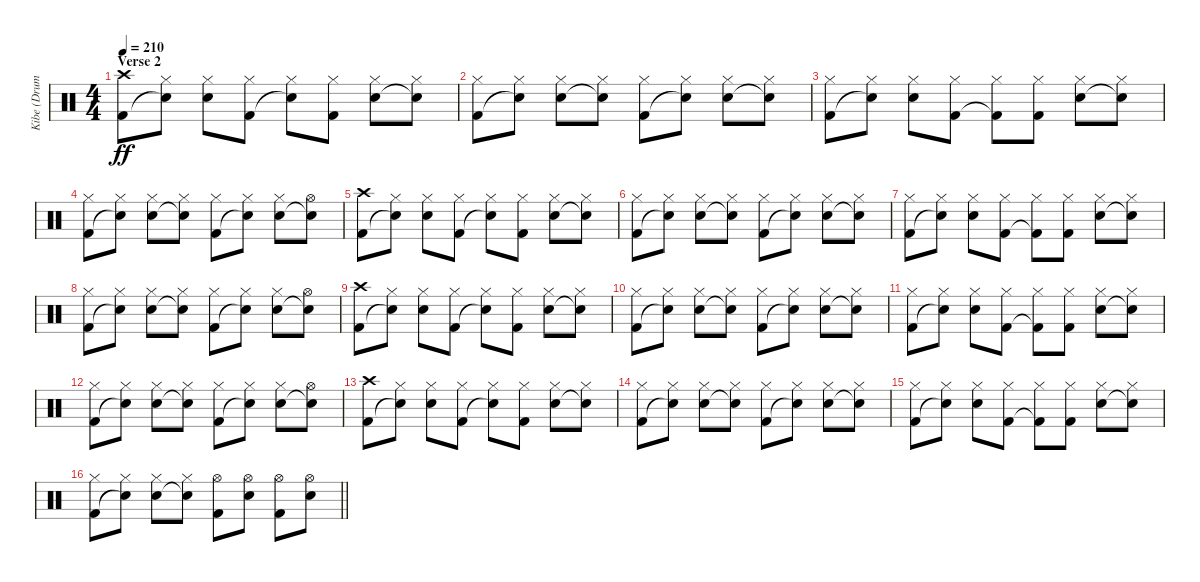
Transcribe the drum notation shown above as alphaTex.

\track ("Kibe (Drums)" "Kibe (Drum") {instrument percussion}
\staff {score}
\articulation defaults
\ts (4 4)
\section ("" "Verse 2")
\tempo 210
\clef neutral
\ks c
("Crash high (hit)" "Kick (hit) 2").8{dy ff} ("Hi-Hat (closed)" "Snare (hit)"{t}).8 ("Hi-Hat (closed)" "Snare (hit) 2").8 ("Hi-Hat (closed)" "Kick (hit) 2").8 ("Hi-Hat (closed)" "Snare (hit)"{t}).8 ("Hi-Hat (closed)" "Kick (hit) 2").8 ("Hi-Hat (closed)" "Snare (hit) 2").8 ("Hi-Hat (closed)" "Snare (hit)"{t}).8 |
("Hi-Hat (closed)" "Kick (hit) 2").8 ("Hi-Hat (closed)" "Snare (hit)"{t}).8 ("Hi-Hat (closed)" "Snare (hit) 2").8 ("Hi-Hat (closed)" "Snare (hit)"{t}).8 ("Hi-Hat (closed)" "Kick (hit) 2").8 ("Hi-Hat (closed)" "Snare (hit)"{t}).8 ("Hi-Hat (closed)" "Snare (hit) 2").8 ("Hi-Hat (closed)" "Snare (hit)"{t}).8 |
("Hi-Hat (closed)" "Kick (hit) 2").8 ("Hi-Hat (closed)" "Snare (hit)"{t}).8 ("Hi-Hat (closed)" "Snare (hit) 2").8 ("Hi-Hat (closed)" "Kick (hit) 2").8 ("Hi-Hat (closed)" "Kick (hit) 2"{t}).8 ("Hi-Hat (closed)" "Kick (hit) 2").8 ("Hi-Hat (closed)" "Snare (hit) 2").8 ("Hi-Hat (closed)" "Snare (hit)"{t}).8 |
("Hi-Hat (closed)" "Kick (hit) 2").8 ("Hi-Hat (closed)" "Snare (hit)"{t}).8 ("Hi-Hat (closed)" "Snare (hit) 2").8 ("Hi-Hat (closed)" "Snare (hit)"{t}).8 ("Hi-Hat (closed)" "Kick (hit) 2").8 ("Hi-Hat (closed)" "Snare (hit)"{t}).8 ("Hi-Hat (closed)" "Snare (hit) 2").8 ("Hi-Hat (open)" "Snare (hit)"{t}).8 |
("Crash high (hit)" "Kick (hit) 2").8 ("Hi-Hat (closed)" "Snare (hit)"{t}).8 ("Hi-Hat (closed)" "Snare (hit) 2").8 ("Hi-Hat (closed)" "Kick (hit) 2").8 ("Hi-Hat (closed)" "Snare (hit)"{t}).8 ("Hi-Hat (closed)" "Kick (hit) 2").8 ("Hi-Hat (closed)" "Snare (hit) 2").8 ("Hi-Hat (closed)" "Snare (hit)"{t}).8 |
("Hi-Hat (closed)" "Kick (hit) 2").8 ("Hi-Hat (closed)" "Snare (hit)"{t}).8 ("Hi-Hat (closed)" "Snare (hit) 2").8 ("Hi-Hat (closed)" "Snare (hit)"{t}).8 ("Hi-Hat (closed)" "Kick (hit) 2").8 ("Hi-Hat (closed)" "Snare (hit)"{t}).8 ("Hi-Hat (closed)" "Snare (hit) 2").8 ("Hi-Hat (closed)" "Snare (hit)"{t}).8 |
("Hi-Hat (closed)" "Kick (hit) 2").8 ("Hi-Hat (closed)" "Snare (hit)"{t}).8 ("Hi-Hat (closed)" "Snare (hit) 2").8 ("Hi-Hat (closed)" "Kick (hit) 2").8 ("Hi-Hat (closed)" "Kick (hit) 2"{t}).8 ("Hi-Hat (closed)" "Kick (hit) 2").8 ("Hi-Hat (closed)" "Snare (hit) 2").8 ("Hi-Hat (closed)" "Snare (hit)"{t}).8 |
("Hi-Hat (closed)" "Kick (hit) 2").8 ("Hi-Hat (closed)" "Snare (hit)"{t}).8 ("Hi-Hat (closed)" "Snare (hit) 2").8 ("Hi-Hat (closed)" "Snare (hit)"{t}).8 ("Hi-Hat (closed)" "Kick (hit) 2").8 ("Hi-Hat (closed)" "Snare (hit)"{t}).8 ("Hi-Hat (closed)" "Snare (hit) 2").8 ("Hi-Hat (open)" "Snare (hit)"{t}).8 |
("Crash high (hit)" "Kick (hit) 2").8 ("Hi-Hat (closed)" "Snare (hit)"{t}).8 ("Hi-Hat (closed)" "Snare (hit) 2").8 ("Hi-Hat (closed)" "Kick (hit) 2").8 ("Hi-Hat (closed)" "Snare (hit)"{t}).8 ("Hi-Hat (closed)" "Kick (hit) 2").8 ("Hi-Hat (closed)" "Snare (hit) 2").8 ("Hi-Hat (closed)" "Snare (hit)"{t}).8 |
("Hi-Hat (closed)" "Kick (hit) 2").8 ("Hi-Hat (closed)" "Snare (hit)"{t}).8 ("Hi-Hat (closed)" "Snare (hit) 2").8 ("Hi-Hat (closed)" "Snare (hit)"{t}).8 ("Hi-Hat (closed)" "Kick (hit) 2").8 ("Hi-Hat (closed)" "Snare (hit)"{t}).8 ("Hi-Hat (closed)" "Snare (hit) 2").8 ("Hi-Hat (closed)" "Snare (hit)"{t}).8 |
("Hi-Hat (closed)" "Kick (hit) 2").8 ("Hi-Hat (closed)" "Snare (hit)"{t}).8 ("Hi-Hat (closed)" "Snare (hit) 2").8 ("Hi-Hat (closed)" "Kick (hit) 2").8 ("Hi-Hat (closed)" "Kick (hit) 2"{t}).8 ("Hi-Hat (closed)" "Kick (hit) 2").8 ("Hi-Hat (closed)" "Snare (hit) 2").8 ("Hi-Hat (closed)" "Snare (hit)"{t}).8 |
("Hi-Hat (closed)" "Kick (hit) 2").8 ("Hi-Hat (closed)" "Snare (hit)"{t}).8 ("Hi-Hat (closed)" "Snare (hit) 2").8 ("Hi-Hat (closed)" "Snare (hit)"{t}).8 ("Hi-Hat (closed)" "Kick (hit) 2").8 ("Hi-Hat (closed)" "Snare (hit)"{t}).8 ("Hi-Hat (closed)" "Snare (hit) 2").8 ("Hi-Hat (open)" "Snare (hit)"{t}).8 |
("Crash high (hit)" "Kick (hit) 2").8 ("Hi-Hat (closed)" "Snare (hit)"{t}).8 ("Hi-Hat (closed)" "Snare (hit) 2").8 ("Hi-Hat (closed)" "Kick (hit) 2").8 ("Hi-Hat (closed)" "Snare (hit)"{t}).8 ("Hi-Hat (closed)" "Kick (hit) 2").8 ("Hi-Hat (closed)" "Snare (hit) 2").8 ("Hi-Hat (closed)" "Snare (hit)"{t}).8 |
("Hi-Hat (closed)" "Kick (hit) 2").8 ("Hi-Hat (closed)" "Snare (hit)"{t}).8 ("Hi-Hat (closed)" "Snare (hit) 2").8 ("Hi-Hat (closed)" "Snare (hit)"{t}).8 ("Hi-Hat (closed)" "Kick (hit) 2").8 ("Hi-Hat (closed)" "Snare (hit)"{t}).8 ("Hi-Hat (closed)" "Snare (hit) 2").8 ("Hi-Hat (closed)" "Snare (hit)"{t}).8 |
("Hi-Hat (closed)" "Kick (hit) 2").8 ("Hi-Hat (closed)" "Snare (hit)"{t}).8 ("Hi-Hat (closed)" "Snare (hit) 2").8 ("Hi-Hat (closed)" "Kick (hit) 2").8 ("Hi-Hat (closed)" "Kick (hit) 2"{t}).8 ("Hi-Hat (closed)" "Kick (hit) 2").8 ("Hi-Hat (closed)" "Snare (hit) 2").8 ("Hi-Hat (closed)" "Snare (hit)"{t}).8 |
\barLineRight lightlight
("Hi-Hat (closed)" "Kick (hit) 2").8 ("Hi-Hat (closed)" "Snare (hit)"{t}).8 ("Hi-Hat (closed)" "Snare (hit) 2").8 ("Hi-Hat (closed)" "Snare (hit)"{t}).8 ("Hi-Hat (open)" "Kick (hit) 2").8 ("Hi-Hat (open)" "Snare (hit) 2").8 ("Hi-Hat (open)" "Kick (hit) 2").8 ("Hi-Hat (open)" "Snare (hit) 2").8
